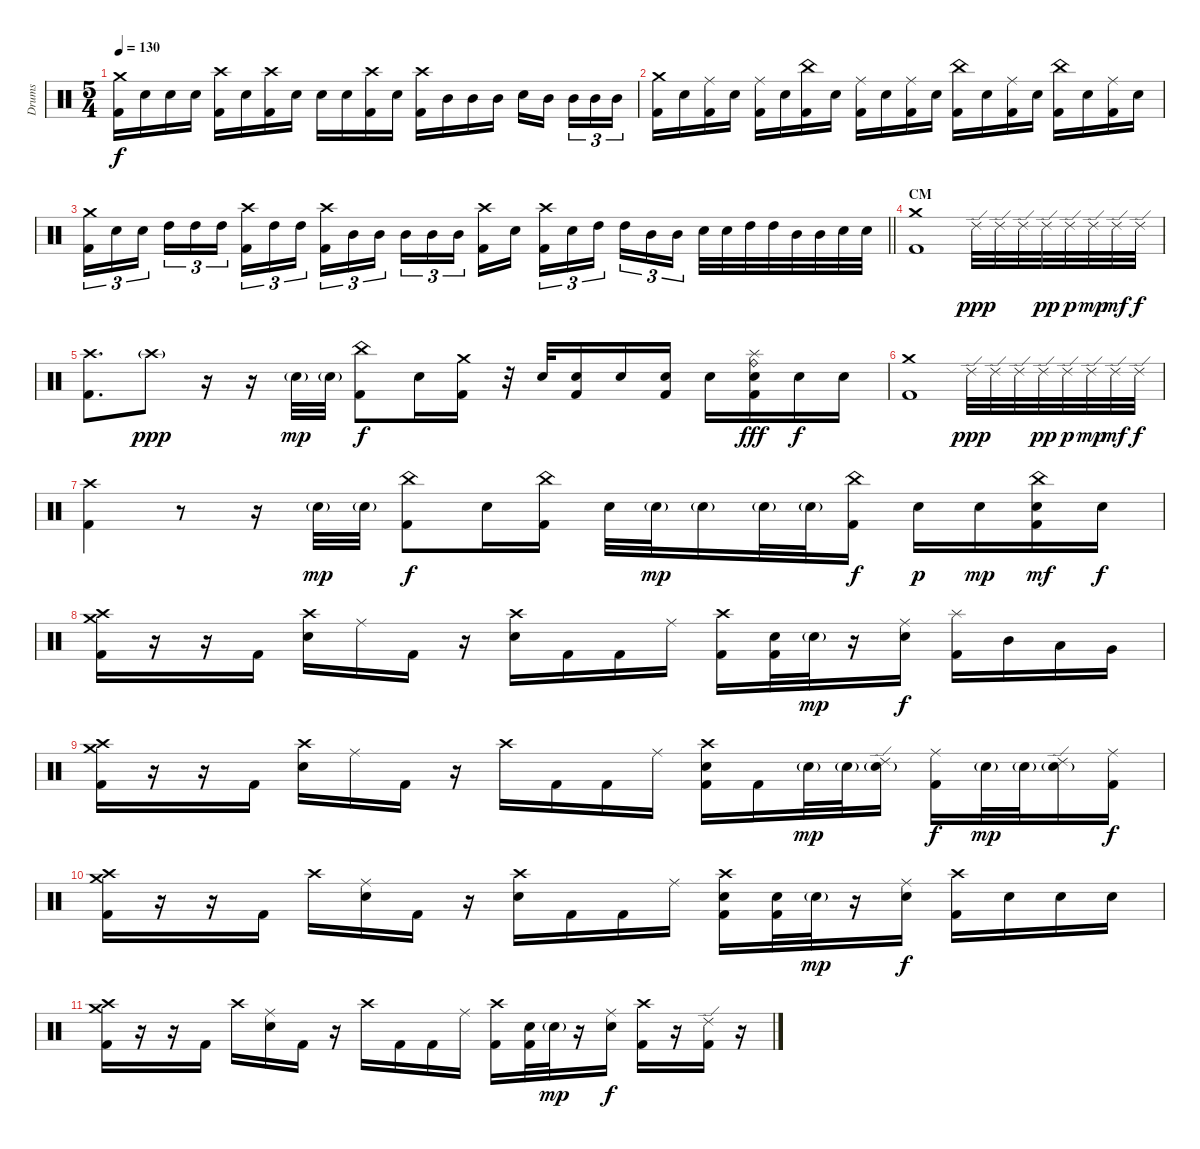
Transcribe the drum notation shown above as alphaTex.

\track ("Drums" "Drums") {instrument percussion}
\staff {score}
\articulation defaults
\ts (5 4)
\tempo 130
\clef neutral
\ks c
("Crash medium (hit)" "Kick (hit) 2").16{dy f} "Electric Snare (hit)".16 "Electric Snare (hit)".16 "Electric Snare (hit)".16 ("Crash high (hit)" "Kick (hit) 2").16 "Electric Snare (hit)".16 ("Crash high (hit)" "Kick (hit) 2").16 "Electric Snare (hit)".16 "Electric Snare (hit)".16 "Electric Snare (hit)".16 ("Crash high (hit)" "Kick (hit) 2").16 "Electric Snare (hit)".16 ("Crash high (hit)" "Kick (hit) 2").16 "Mid Tom (hit)".16 "Mid Tom (hit)".16 "Mid Tom (hit)".16 "Electric Snare (hit)".16 "Mid Tom (hit)".16{beam splitsecondary} "Mid Tom (hit)".16{tu (3 2)} "Mid Tom (hit)".16{tu (3 2)} "Mid Tom (hit)".16{tu (3 2)} |
("Crash medium (hit)" "Kick (hit) 2").16 "Electric Snare (hit)".16 ("Ride (middle)" "Kick (hit) 2").16 "Electric Snare (hit)".16 ("Ride (middle)" "Kick (hit) 2").16 "Electric Snare (hit)".16 ("China (hit)" "Kick (hit) 2").16 "Electric Snare (hit)".16 ("Ride (middle)" "Kick (hit) 2").16 "Electric Snare (hit)".16 ("Ride (middle)" "Kick (hit) 2").16 "Electric Snare (hit)".16 ("China (hit)" "Kick (hit) 2").16 "Electric Snare (hit)".16 ("Ride (middle)" "Kick (hit) 2").16 "Electric Snare (hit)".16 ("China (hit)" "Kick (hit) 2").16 "Electric Snare (hit)".16 ("Ride (middle)" "Kick (hit) 2").16 "Electric Snare (hit)".16 |
\barLineRight lightlight
("Crash medium (hit)" "Kick (hit) 2").16{tu (3 2)} "Electric Snare (hit)".16{tu (3 2)} "Electric Snare (hit)".16{tu (3 2) beam splitsecondary} "High Tom (hit)".16{tu (3 2)} "High Tom (hit)".16{tu (3 2)} "High Tom (hit)".16{tu (3 2)} ("Crash high (hit)" "Kick (hit) 2").16{tu (3 2)} "High Tom (hit)".16{tu (3 2)} "High Tom (hit)".16{tu (3 2) beam splitsecondary} ("Crash high (hit)" "Kick (hit) 2").16{tu (3 2)} "Mid Tom (hit)".16{tu (3 2)} "Mid Tom (hit)".16{tu (3 2)} "Mid Tom (hit)".16{tu (3 2)} "Mid Tom (hit)".16{tu (3 2)} "Mid Tom (hit)".16{tu (3 2) beam splitsecondary} ("Crash high (hit)" "Kick (hit) 2").16 "Electric Snare (hit)".16 ("Crash high (hit)" "Kick (hit) 2").16{tu (3 2)} "Electric Snare (hit)".16{tu (3 2)} "High Tom (hit)".16{tu (3 2) beam splitsecondary} "High Tom (hit)".16{tu (3 2)} "Mid Tom (hit)".16{tu (3 2)} "Mid Tom (hit)".16{tu (3 2)} "Electric Snare (hit)".32 "Electric Snare (hit)".32 "High Tom (hit)".32 "High Tom (hit)".32 "Mid Tom (hit)".32 "Mid Tom (hit)".32 "Electric Snare (hit)".32 "Electric Snare (hit)".32 |
\section ("" "CM")
("Crash medium (hit)" "Kick (hit) 2").1 "Ride (edge) 2".32{dy ppp} "Ride (edge) 2".32 "Ride (edge) 2".32 "Ride (edge) 2".32{dy pp} "Ride (edge) 2".32{dy p} "Ride (edge) 2".32{dy mp} "Ride (edge) 2".32{dy mf} "Ride (edge) 2".32{dy f} |
("Crash high (hit)" "Kick (hit) 2").8{d} "Crash high (hit)"{g}.8{dy ppp} r.16 r.16 "Electric Snare (hit)"{g}.32{dy mp} "Electric Snare (hit)"{g}.32 ("China (hit)" "Kick (hit) 2").8{dy f} "Electric Snare (hit)".16 ("Crash medium (hit)" "Kick (hit) 2").16 r.32 "Electric Snare (hit)".32 ("Electric Snare (hit)" "Kick (hit) 2").16 "Electric Snare (hit)".16 ("Electric Snare (hit)" "Kick (hit) 2").16 "Electric Snare (hit)".16 ("Splash (hit)" "Ride (bell)" "Electric Snare (hit)" "Kick (hit) 2").16{dy fff} "Electric Snare (hit)".16{dy f} "Electric Snare (hit)".16 |
("Crash medium (hit)" "Kick (hit) 2").1 "Ride (edge) 2".32{dy ppp} "Ride (edge) 2".32 "Ride (edge) 2".32 "Ride (edge) 2".32{dy pp} "Ride (edge) 2".32{dy p} "Ride (edge) 2".32{dy mp} "Ride (edge) 2".32{dy mf} "Ride (edge) 2".32{dy f} |
("Crash high (hit)" "Kick (hit) 2").4 r.8 r.16 "Electric Snare (hit)"{g}.32{dy mp} "Electric Snare (hit)"{g}.32 ("China (hit)" "Kick (hit) 2").8{dy f} "Electric Snare (hit)".16 ("China (hit)" "Kick (hit) 2").16 "Electric Snare (hit)".32 "Electric Snare (hit)"{g}.32{dy mp} "Electric Snare (hit)"{g}.16 "Electric Snare (hit)"{g}.32 "Electric Snare (hit)"{g}.32 ("China (hit)" "Kick (hit) 2").16{dy f} "Electric Snare (hit)".16{dy p} "Electric Snare (hit)".16{dy mp} ("China (hit)" "Electric Snare (hit)" "Kick (hit) 2").16{dy mf} "Electric Snare (hit)".16{dy f} |
("Crash high (hit)" "Crash medium (hit)" "Kick (hit) 2").16 r.16 r.16 "Kick (hit) 2".16 ("Crash high (hit)" "Electric Snare (hit)").16 "Ride (middle)".16 "Kick (hit) 2".16 r.16 ("Crash high (hit)" "Electric Snare (hit)").16 "Kick (hit) 2".16 "Kick (hit) 2".16 "Ride (middle)".16 ("Crash high (hit)" "Kick (hit) 2").16 ("Electric Snare (hit)" "Kick (hit) 2").32 "Electric Snare (hit)"{g}.32{dy mp} r.16 ("Ride (middle)" "Electric Snare (hit)").16{dy f} ("Splash (hit)" "Kick (hit) 2").16 "Mid Tom (hit)".16 "Low Tom (hit)".16 "Very Low Tom (hit)".16 |
("Crash high (hit)" "Crash medium (hit)" "Kick (hit) 2").16 r.16 r.16 "Kick (hit) 2".16 ("Crash high (hit)" "Electric Snare (hit)").16 "Ride (middle)".16 "Kick (hit) 2".16 r.16 "Crash high (hit)".16 "Kick (hit) 2".16 "Kick (hit) 2".16 "Ride (middle)".16 ("Crash high (hit)" "Electric Snare (hit)" "Kick (hit) 2").16 "Kick (hit) 2".16 "Electric Snare (hit)"{g}.32{dy mp} "Electric Snare (hit)"{g}.32 ("Ride (edge) 2" "Electric Snare (hit)"{g}).16 ("Ride (middle)" "Kick (hit) 2").16{dy f} "Electric Snare (hit)"{g}.32{dy mp} "Electric Snare (hit)"{g}.32 ("Ride (edge) 2" "Electric Snare (hit)"{g}).16 ("Ride (middle)" "Kick (hit) 2").16{dy f} |
("Crash high (hit)" "Crash medium (hit)" "Kick (hit) 2").16 r.16 r.16 "Kick (hit) 2".16 "Crash high (hit)".16 ("Ride (middle)" "Electric Snare (hit)").16 "Kick (hit) 2".16 r.16 ("Crash high (hit)" "Electric Snare (hit)").16 "Kick (hit) 2".16 "Kick (hit) 2".16 "Ride (middle)".16 ("Crash high (hit)" "Electric Snare (hit)" "Kick (hit) 2").16 ("Electric Snare (hit)" "Kick (hit) 2").32 "Electric Snare (hit)"{g}.32{dy mp} r.16 ("Ride (middle)" "Electric Snare (hit)").16{dy f} ("Crash high (hit)" "Kick (hit) 2").16 "Electric Snare (hit)".16 "Electric Snare (hit)".16 "Electric Snare (hit)".16 |
("Crash high (hit)" "Crash medium (hit)" "Kick (hit) 2").16 r.16 r.16 "Kick (hit) 2".16 "Crash high (hit)".16 ("Ride (middle)" "Electric Snare (hit)").16 "Kick (hit) 2".16 r.16 "Crash high (hit)".16 "Kick (hit) 2".16 "Kick (hit) 2".16 "Ride (middle)".16 ("Crash high (hit)" "Kick (hit) 2").16 ("Electric Snare (hit)" "Kick (hit) 2").32 "Electric Snare (hit)"{g}.32{dy mp} r.16 ("Ride (middle)" "Electric Snare (hit)").16{dy f} ("Crash high (hit)" "Kick (hit) 2").16 r.16 ("Ride (edge) 2" "Kick (hit) 2").16 r.16
